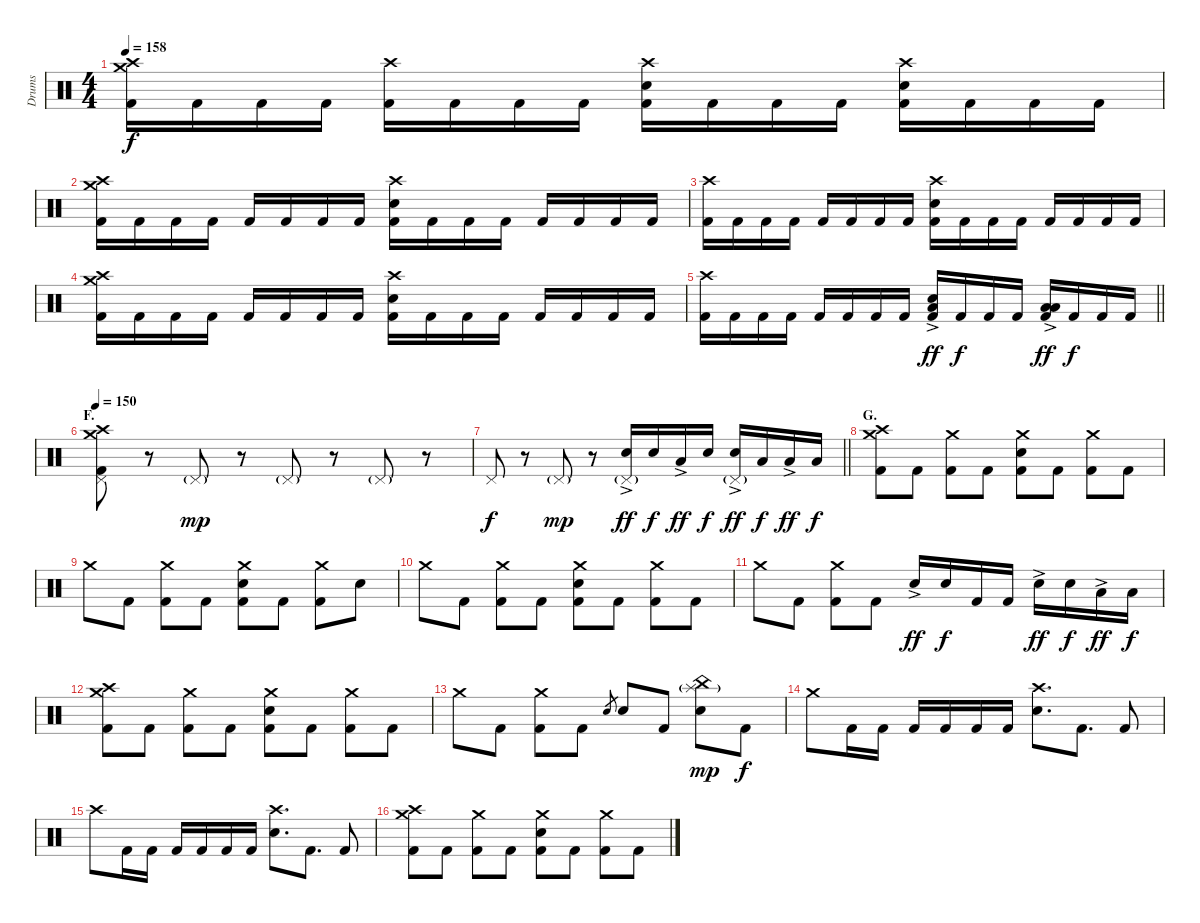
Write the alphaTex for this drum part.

\track ("Drums" "Drums") {instrument percussion}
\staff {score}
\articulation defaults
\ts (4 4)
\tempo 158
\clef neutral
\ks c
("Crash medium (hit)" "Crash high (hit)" "Kick (hit) 2").16{dy f} "Kick (hit) 2".16 "Kick (hit) 2".16 "Kick (hit) 2".16 ("Crash high (hit)" "Kick (hit) 2").16 "Kick (hit) 2".16 "Kick (hit) 2".16 "Kick (hit) 2".16 ("Crash high (hit)" "Electric Snare (hit)" "Kick (hit) 2").16 "Kick (hit) 2".16 "Kick (hit) 2".16 "Kick (hit) 2".16 ("Crash high (hit)" "Electric Snare (hit)" "Kick (hit) 2").16 "Kick (hit) 2".16 "Kick (hit) 2".16 "Kick (hit) 2".16 |
("Crash medium (hit)" "Crash high (hit)" "Kick (hit) 2").16 "Kick (hit) 2".16 "Kick (hit) 2".16 "Kick (hit) 2".16 "Kick (hit) 2".16 "Kick (hit) 2".16 "Kick (hit) 2".16 "Kick (hit) 2".16 ("Crash high (hit)" "Electric Snare (hit)" "Kick (hit) 2").16 "Kick (hit) 2".16 "Kick (hit) 2".16 "Kick (hit) 2".16 "Kick (hit) 2".16 "Kick (hit) 2".16 "Kick (hit) 2".16 "Kick (hit) 2".16 |
("Crash high (hit)" "Kick (hit) 2").16 "Kick (hit) 2".16 "Kick (hit) 2".16 "Kick (hit) 2".16 "Kick (hit) 2".16 "Kick (hit) 2".16 "Kick (hit) 2".16 "Kick (hit) 2".16 ("Crash high (hit)" "Electric Snare (hit)" "Kick (hit) 2").16 "Kick (hit) 2".16 "Kick (hit) 2".16 "Kick (hit) 2".16 "Kick (hit) 2".16 "Kick (hit) 2".16 "Kick (hit) 2".16 "Kick (hit) 2".16 |
("Crash medium (hit)" "Crash high (hit)" "Kick (hit) 2").16 "Kick (hit) 2".16 "Kick (hit) 2".16 "Kick (hit) 2".16 "Kick (hit) 2".16 "Kick (hit) 2".16 "Kick (hit) 2".16 "Kick (hit) 2".16 ("Crash high (hit)" "Electric Snare (hit)" "Kick (hit) 2").16 "Kick (hit) 2".16 "Kick (hit) 2".16 "Kick (hit) 2".16 "Kick (hit) 2".16 "Kick (hit) 2".16 "Kick (hit) 2".16 "Kick (hit) 2".16 |
\barLineRight lightlight
("Crash high (hit)" "Kick (hit) 2").16 "Kick (hit) 2".16 "Kick (hit) 2".16 "Kick (hit) 2".16 "Kick (hit) 2".16 "Kick (hit) 2".16 "Kick (hit) 2".16 "Kick (hit) 2".16 ("Electric Snare (hit)"{ac} "Low Floor Tom (hit)"{ac} "Kick (hit) 2").16{dy ff} "Kick (hit) 2".16{dy f} "Kick (hit) 2".16 "Kick (hit) 2".16 ("Low Tom (hit)"{ac} "Low Floor Tom (hit)"{ac} "Kick (hit) 2").16{dy ff} "Kick (hit) 2".16{dy f} "Kick (hit) 2".16 "Kick (hit) 2".16 |
\section ("" "F.")
\tempo 150
("Crash medium (hit)" "Crash high (hit)" "Pedal Hi-Hat (hit)" "Kick (hit) 2").8 r.8 "Pedal Hi-Hat (hit)"{g}.8{dy mp} r.8 "Pedal Hi-Hat (hit)"{g}.8 r.8 "Pedal Hi-Hat (hit)"{g}.8 r.8 |
\barLineRight lightlight "Pedal Hi-Hat (hit)".8{dy f}
r.8 "Pedal Hi-Hat (hit)"{g}.8{dy mp} r.8 ("Pedal Hi-Hat (hit)"{g} "Electric Snare (hit)"{ac}).16{dy ff} "Electric Snare (hit)".16{dy f} "Low Tom (hit)"{ac}.16{dy ff} "Electric Snare (hit)".16{dy f} ("Pedal Hi-Hat (hit)"{g} "Electric Snare (hit)"{ac}).16{dy ff} "Low Tom (hit)".16{dy f} "Low Tom (hit)"{ac}.16{dy ff} "Low Tom (hit)".16{dy f} |
\section ("" "G.")
("Crash medium (hit)" "Crash high (hit)" "Kick (hit) 2").8 "Kick (hit) 2".8 ("Crash medium (hit)" "Kick (hit) 2").8 "Kick (hit) 2".8 ("Crash medium (hit)" "Electric Snare (hit)" "Kick (hit) 2").8 "Kick (hit) 2".8 ("Crash medium (hit)" "Kick (hit) 2").8 "Kick (hit) 2".8 |
"Crash medium (hit)".8 "Kick (hit) 2".8 ("Crash medium (hit)" "Kick (hit) 2").8 "Kick (hit) 2".8 ("Crash medium (hit)" "Electric Snare (hit)" "Kick (hit) 2").8 "Kick (hit) 2".8 ("Crash medium (hit)" "Kick (hit) 2").8 "Electric Snare (hit)".8 |
"Crash medium (hit)".8 "Kick (hit) 2".8 ("Crash medium (hit)" "Kick (hit) 2").8 "Kick (hit) 2".8 ("Crash medium (hit)" "Electric Snare (hit)" "Kick (hit) 2").8 "Kick (hit) 2".8 ("Crash medium (hit)" "Kick (hit) 2").8 "Kick (hit) 2".8 |
"Crash medium (hit)".8 "Kick (hit) 2".8 ("Crash medium (hit)" "Kick (hit) 2").8 "Kick (hit) 2".8 "Electric Snare (hit)"{ac}.16{dy ff} "Electric Snare (hit)".16{dy f} "Kick (hit) 2".16 "Kick (hit) 2".16 "Electric Snare (hit)"{ac}.16{dy ff} "Electric Snare (hit)".16{dy f} "Low Tom (hit)"{ac}.16{dy ff} "Low Tom (hit)".16{dy f} |
("Crash medium (hit)" "Crash high (hit)" "Kick (hit) 2").8 "Kick (hit) 2".8 ("Crash medium (hit)" "Kick (hit) 2").8 "Kick (hit) 2".8 ("Crash medium (hit)" "Electric Snare (hit)" "Kick (hit) 2").8 "Kick (hit) 2".8 ("Crash medium (hit)" "Kick (hit) 2").8 "Kick (hit) 2".8 |
"Crash medium (hit)".8 "Kick (hit) 2".8 ("Crash medium (hit)" "Kick (hit) 2").8 "Kick (hit) 2".8 "Electric Snare (hit)".8{gr} "Electric Snare (hit)".8 "Kick (hit) 2".8 ("China (hit)" "Splash (hit)"{g} "Electric Snare (hit)").8{dy mp} "Kick (hit) 2".8{dy f} |
"Crash medium (hit)".8 "Kick (hit) 2".16 "Kick (hit) 2".16 "Kick (hit) 2".16 "Kick (hit) 2".16 "Kick (hit) 2".16 "Kick (hit) 2".16 ("Crash high (hit)" "Electric Snare (hit)").8{d} "Kick (hit) 2".8{d} "Kick (hit) 2".8 |
"Crash high (hit)".8 "Kick (hit) 2".16 "Kick (hit) 2".16 "Kick (hit) 2".16 "Kick (hit) 2".16 "Kick (hit) 2".16 "Kick (hit) 2".16 ("Crash high (hit)" "Electric Snare (hit)").8{d} "Kick (hit) 2".8{d} "Kick (hit) 2".8 |
("Crash medium (hit)" "Crash high (hit)" "Kick (hit) 2").8 "Kick (hit) 2".8 ("Crash medium (hit)" "Kick (hit) 2").8 "Kick (hit) 2".8 ("Crash medium (hit)" "Electric Snare (hit)" "Kick (hit) 2").8 "Kick (hit) 2".8 ("Crash medium (hit)" "Kick (hit) 2").8 "Kick (hit) 2".8
